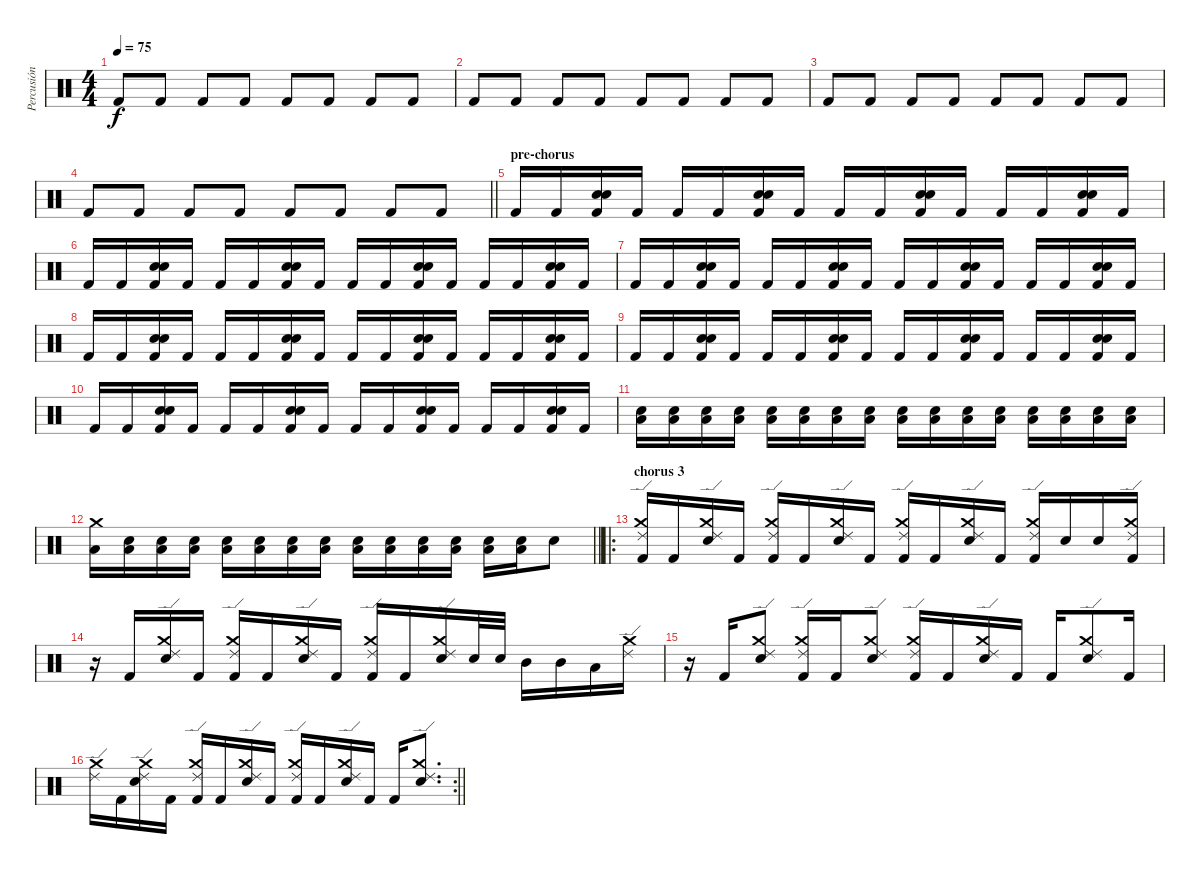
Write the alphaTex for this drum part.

\track ("Percusión" "Percusión") {instrument percussion}
\staff {score}
\articulation defaults
\ts (4 4)
\tempo 75
\clef neutral
\ks c "Kick (hit) 2".8{dy f} "Kick (hit) 2".8 "Kick (hit) 2".8 "Kick (hit) 2".8 "Kick (hit) 2".8 "Kick (hit) 2".8 "Kick (hit) 2".8 "Kick (hit) 2".8
|
"Kick (hit) 2".8 "Kick (hit) 2".8 "Kick (hit) 2".8 "Kick (hit) 2".8 "Kick (hit) 2".8 "Kick (hit) 2".8 "Kick (hit) 2".8 "Kick (hit) 2".8 |
"Kick (hit) 2".8 "Kick (hit) 2".8 "Kick (hit) 2".8 "Kick (hit) 2".8 "Kick (hit) 2".8 "Kick (hit) 2".8 "Kick (hit) 2".8 "Kick (hit) 2".8 |
\barLineRight lightlight "Kick (hit) 2".8 "Kick (hit) 2".8 "Kick (hit) 2".8 "Kick (hit) 2".8 "Kick (hit) 2".8 "Kick (hit) 2".8 "Kick (hit) 2".8 "Kick (hit) 2".8
|
\section ("" "pre-chorus")
"Kick (hit) 2".16 "Kick (hit) 2".16 ("Kick (hit) 2" "Snare (hit) 2" "Electric Snare (hit)").16 "Kick (hit) 2".16 "Kick (hit) 2".16 "Kick (hit) 2".16 ("Kick (hit) 2" "Snare (hit) 2" "Electric Snare (hit)").16 "Kick (hit) 2".16 "Kick (hit) 2".16 "Kick (hit) 2".16 ("Kick (hit) 2" "Snare (hit) 2" "Electric Snare (hit)").16 "Kick (hit) 2".16 "Kick (hit) 2".16 "Kick (hit) 2".16 ("Kick (hit) 2" "Snare (hit) 2" "Electric Snare (hit)").16 "Kick (hit) 2".16 |
"Kick (hit) 2".16 "Kick (hit) 2".16 ("Kick (hit) 2" "Snare (hit) 2" "Electric Snare (hit)").16 "Kick (hit) 2".16 "Kick (hit) 2".16 "Kick (hit) 2".16 ("Kick (hit) 2" "Snare (hit) 2" "Electric Snare (hit)").16 "Kick (hit) 2".16 "Kick (hit) 2".16 "Kick (hit) 2".16 ("Kick (hit) 2" "Snare (hit) 2" "Electric Snare (hit)").16 "Kick (hit) 2".16 "Kick (hit) 2".16 "Kick (hit) 2".16 ("Kick (hit) 2" "Snare (hit) 2" "Electric Snare (hit)").16 "Kick (hit) 2".16 |
"Kick (hit) 2".16 "Kick (hit) 2".16 ("Kick (hit) 2" "Snare (hit) 2" "Electric Snare (hit)").16 "Kick (hit) 2".16 "Kick (hit) 2".16 "Kick (hit) 2".16 ("Kick (hit) 2" "Snare (hit) 2" "Electric Snare (hit)").16 "Kick (hit) 2".16 "Kick (hit) 2".16 "Kick (hit) 2".16 ("Kick (hit) 2" "Snare (hit) 2" "Electric Snare (hit)").16 "Kick (hit) 2".16 "Kick (hit) 2".16 "Kick (hit) 2".16 ("Kick (hit) 2" "Snare (hit) 2" "Electric Snare (hit)").16 "Kick (hit) 2".16 |
"Kick (hit) 2".16 "Kick (hit) 2".16 ("Kick (hit) 2" "Snare (hit) 2" "Electric Snare (hit)").16 "Kick (hit) 2".16 "Kick (hit) 2".16 "Kick (hit) 2".16 ("Kick (hit) 2" "Snare (hit) 2" "Electric Snare (hit)").16 "Kick (hit) 2".16 "Kick (hit) 2".16 "Kick (hit) 2".16 ("Kick (hit) 2" "Snare (hit) 2" "Electric Snare (hit)").16 "Kick (hit) 2".16 "Kick (hit) 2".16 "Kick (hit) 2".16 ("Kick (hit) 2" "Snare (hit) 2" "Electric Snare (hit)").16 "Kick (hit) 2".16 |
"Kick (hit) 2".16 "Kick (hit) 2".16 ("Kick (hit) 2" "Snare (hit) 2" "Electric Snare (hit)").16 "Kick (hit) 2".16 "Kick (hit) 2".16 "Kick (hit) 2".16 ("Kick (hit) 2" "Snare (hit) 2" "Electric Snare (hit)").16 "Kick (hit) 2".16 "Kick (hit) 2".16 "Kick (hit) 2".16 ("Kick (hit) 2" "Snare (hit) 2" "Electric Snare (hit)").16 "Kick (hit) 2".16 "Kick (hit) 2".16 "Kick (hit) 2".16 ("Kick (hit) 2" "Snare (hit) 2" "Electric Snare (hit)").16 "Kick (hit) 2".16 |
"Kick (hit) 2".16 "Kick (hit) 2".16 ("Kick (hit) 2" "Snare (hit) 2" "Electric Snare (hit)").16 "Kick (hit) 2".16 "Kick (hit) 2".16 "Kick (hit) 2".16 ("Kick (hit) 2" "Snare (hit) 2" "Electric Snare (hit)").16 "Kick (hit) 2".16 "Kick (hit) 2".16 "Kick (hit) 2".16 ("Kick (hit) 2" "Snare (hit) 2" "Electric Snare (hit)").16 "Kick (hit) 2".16 "Kick (hit) 2".16 "Kick (hit) 2".16 ("Kick (hit) 2" "Snare (hit) 2" "Electric Snare (hit)").16 "Kick (hit) 2".16 |
("Electric Snare (hit)" "Low Tom (hit)").16 ("Electric Snare (hit)" "Low Tom (hit)").16 ("Electric Snare (hit)" "Low Tom (hit)").16 ("Electric Snare (hit)" "Low Tom (hit)").16 ("Electric Snare (hit)" "Low Tom (hit)").16 ("Electric Snare (hit)" "Low Tom (hit)").16 ("Electric Snare (hit)" "Low Tom (hit)").16 ("Electric Snare (hit)" "Low Tom (hit)").16 ("Electric Snare (hit)" "Low Tom (hit)").16 ("Electric Snare (hit)" "Low Tom (hit)").16 ("Electric Snare (hit)" "Low Tom (hit)").16 ("Electric Snare (hit)" "Low Tom (hit)").16 ("Electric Snare (hit)" "Low Tom (hit)").16 ("Electric Snare (hit)" "Low Tom (hit)").16 ("Electric Snare (hit)" "Low Tom (hit)").16 ("Electric Snare (hit)" "Low Tom (hit)").16 |
\barLineRight lightlight
("Crash medium (hit)" "Low Tom (hit)").16 ("Electric Snare (hit)" "Low Tom (hit)").16 ("Electric Snare (hit)" "Low Tom (hit)").16 ("Electric Snare (hit)" "Low Tom (hit)").16 ("Electric Snare (hit)" "Low Tom (hit)").16 ("Electric Snare (hit)" "Low Tom (hit)").16 ("Electric Snare (hit)" "Low Tom (hit)").16 ("Electric Snare (hit)" "Low Tom (hit)").16 ("Electric Snare (hit)" "Low Tom (hit)").16 ("Electric Snare (hit)" "Low Tom (hit)").16 ("Electric Snare (hit)" "Low Tom (hit)").16 ("Electric Snare (hit)" "Low Tom (hit)").16 ("Electric Snare (hit)" "Low Tom (hit)").16 ("Electric Snare (hit)" "Low Tom (hit)").16 "Electric Snare (hit)".8 |
\ro
\section ("" "chorus 3")
("Kick (hit) 2" "Ride (edge) 2" "Crash medium (hit)").16 "Kick (hit) 2".16 ("Electric Snare (hit)" "Ride (edge) 2" "Crash medium (hit)").16 "Kick (hit) 2".16 ("Kick (hit) 2" "Ride (edge) 2" "Crash medium (hit)").16 "Kick (hit) 2".16 ("Electric Snare (hit)" "Ride (edge) 2" "Crash medium (hit)").16 "Kick (hit) 2".16 ("Kick (hit) 2" "Ride (edge) 2" "Crash medium (hit)").16 "Kick (hit) 2".16 ("Electric Snare (hit)" "Ride (edge) 2" "Crash medium (hit)").16 "Kick (hit) 2".16 ("Kick (hit) 2" "Ride (edge) 2" "Crash medium (hit)").16 "Electric Snare (hit)".16 "Electric Snare (hit)".16 ("Kick (hit) 2" "Crash medium (hit)" "Ride (edge) 2").16 |
r.16 "Kick (hit) 2".16 ("Electric Snare (hit)" "Ride (edge) 2" "Crash medium (hit)").16 "Kick (hit) 2".16 ("Kick (hit) 2" "Ride (edge) 2" "Crash medium (hit)").16 "Kick (hit) 2".16 ("Electric Snare (hit)" "Ride (edge) 2" "Crash medium (hit)").16 "Kick (hit) 2".16 ("Kick (hit) 2" "Ride (edge) 2" "Crash medium (hit)").16 "Kick (hit) 2".16 ("Electric Snare (hit)" "Ride (edge) 2" "Crash medium (hit)").16 "Electric Snare (hit)".32 "Electric Snare (hit)".32 "Mid Tom (hit)".16 "Mid Tom (hit)".16 "Low Tom (hit)".16 ("Ride (edge) 2" "Crash medium (hit)").16 |
r.16 "Kick (hit) 2".16 ("Electric Snare (hit)" "Ride (edge) 2" "Crash medium (hit)").8 ("Kick (hit) 2" "Ride (edge) 2" "Crash medium (hit)").16 "Kick (hit) 2".16 ("Electric Snare (hit)" "Ride (edge) 2" "Crash medium (hit)").8 ("Kick (hit) 2" "Ride (edge) 2" "Crash medium (hit)").16 "Kick (hit) 2".16 ("Electric Snare (hit)" "Ride (edge) 2" "Crash medium (hit)").16 "Kick (hit) 2".16 "Kick (hit) 2".16 ("Electric Snare (hit)" "Ride (edge) 2" "Crash medium (hit)").8 "Kick (hit) 2".16 |
\rc 2
\barLineRight lightlight
("Ride (edge) 2" "Crash medium (hit)").16 "Kick (hit) 2".16 ("Electric Snare (hit)" "Ride (edge) 2" "Crash medium (hit)").16 "Kick (hit) 2".16 ("Kick (hit) 2" "Crash medium (hit)" "Ride (edge) 2").16 "Kick (hit) 2".16 ("Electric Snare (hit)" "Ride (edge) 2" "Crash medium (hit)").16 "Kick (hit) 2".16 ("Kick (hit) 2" "Ride (edge) 2" "Crash medium (hit)").16 "Kick (hit) 2".16 ("Electric Snare (hit)" "Ride (edge) 2" "Crash medium (hit)").16 "Kick (hit) 2".16 "Kick (hit) 2".16 ("Electric Snare (hit)" "Ride (edge) 2" "Crash medium (hit)").8{d}
